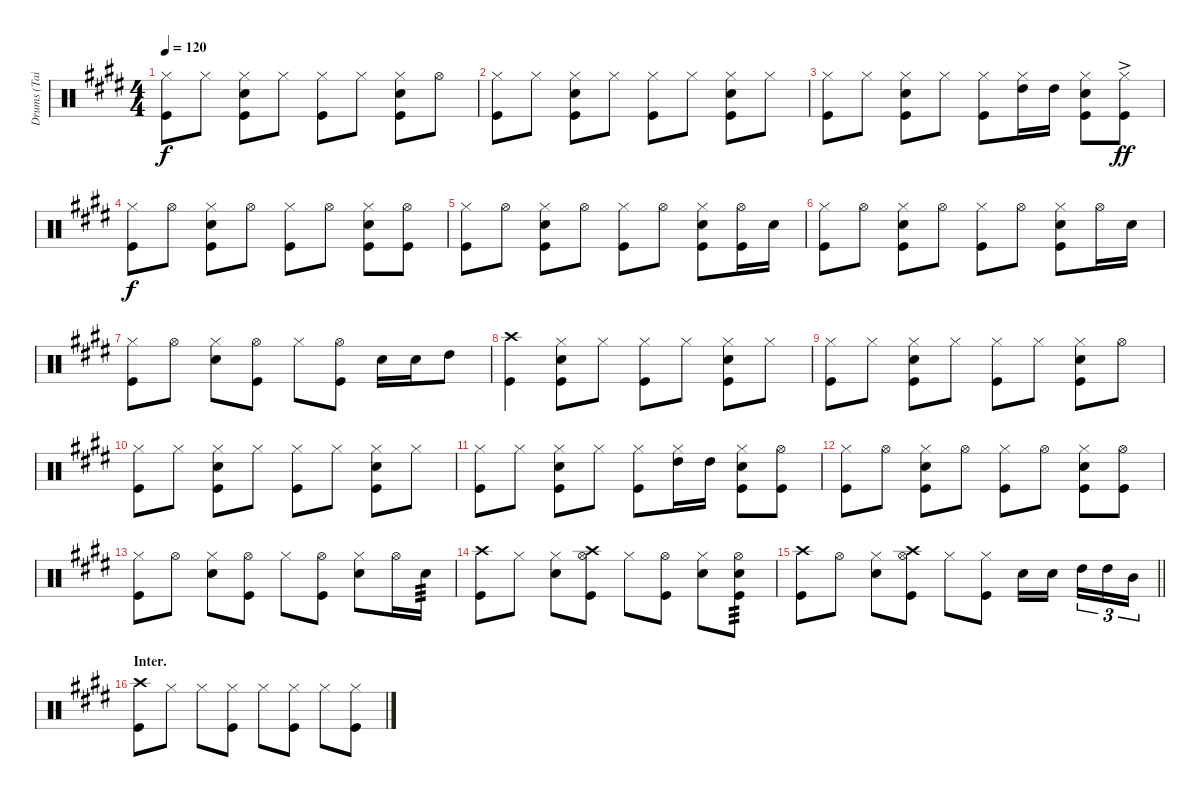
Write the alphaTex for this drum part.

\track ("Drums (Tainaka Ritsu)" "Drums (Tai") {instrument percussion}
\staff {score}
\articulation defaults
\ts (4 4)
\tempo 120
\clef neutral
\ks e
("Hi-Hat (closed)" "Kick (hit)").8{dy f} "Hi-Hat (closed)".8 ("Hi-Hat (closed)" "Snare (hit) 2" "Kick (hit)").8 "Hi-Hat (closed)".8 ("Hi-Hat (closed)" "Kick (hit)").8 "Hi-Hat (closed)".8 ("Hi-Hat (closed)" "Snare (hit) 2" "Kick (hit)").8 "Hi-Hat (open)".8 |
("Hi-Hat (closed)" "Kick (hit)").8 "Hi-Hat (closed)".8 ("Hi-Hat (closed)" "Snare (hit) 2" "Kick (hit)").8 "Hi-Hat (closed)".8 ("Hi-Hat (closed)" "Kick (hit)").8 "Hi-Hat (closed)".8 ("Hi-Hat (closed)" "Snare (hit) 2" "Kick (hit)").8 "Hi-Hat (closed)".8 |
("Hi-Hat (closed)" "Kick (hit)").8 "Hi-Hat (closed)".8 ("Hi-Hat (closed)" "Snare (hit) 2" "Kick (hit)").8 "Hi-Hat (closed)".8 ("Hi-Hat (closed)" "Kick (hit)").8 ("Hi-Hat (closed)" "High Tom (hit)").16 "High Tom (hit)".16 ("Hi-Hat (closed)" "Snare (hit) 2" "Kick (hit)").8 ("Hi-Hat (closed)"{ac} "Kick (hit)").8{dy ff} |
("Hi-Hat (closed)" "Kick (hit)").8{dy f} "Hi-Hat (open)".8 ("Hi-Hat (closed)" "Snare (hit) 2" "Kick (hit)").8 "Hi-Hat (open)".8 ("Hi-Hat (closed)" "Kick (hit)").8 "Hi-Hat (open)".8 ("Hi-Hat (closed)" "Snare (hit) 2" "Kick (hit)").8 ("Hi-Hat (open)" "Kick (hit)").8 |
("Hi-Hat (closed)" "Kick (hit)").8 "Hi-Hat (open)".8 ("Hi-Hat (closed)" "Snare (hit) 2" "Kick (hit)").8 "Hi-Hat (open)".8 ("Hi-Hat (closed)" "Kick (hit)").8 "Hi-Hat (open)".8 ("Hi-Hat (closed)" "Snare (hit) 2" "Kick (hit)").8 ("Hi-Hat (open)" "Kick (hit)").16 "Snare (hit) 2".16 |
("Hi-Hat (closed)" "Kick (hit)").8 "Hi-Hat (open)".8 ("Hi-Hat (closed)" "Snare (hit) 2" "Kick (hit)").8 "Hi-Hat (open)".8 ("Hi-Hat (closed)" "Kick (hit)").8 "Hi-Hat (open)".8 ("Hi-Hat (closed)" "Snare (hit) 2" "Kick (hit)").8 "Hi-Hat (open)".16 "Snare (hit) 2".16 |
("Hi-Hat (closed)" "Kick (hit)").8 "Hi-Hat (open)".8 ("Hi-Hat (closed)" "Snare (hit) 2").8 ("Hi-Hat (open)" "Kick (hit)").8 "Hi-Hat (closed)".8 ("Hi-Hat (open)" "Kick (hit)").8 "Snare (hit) 2".16 "Snare (hit) 2".16 "High Tom (hit)".8 |
("Crash high (hit)" "Kick (hit)").4 ("Hi-Hat (closed)" "Snare (hit) 2" "Kick (hit)").8 "Hi-Hat (closed)".8 ("Hi-Hat (closed)" "Kick (hit)").8 "Hi-Hat (closed)".8 ("Hi-Hat (closed)" "Snare (hit) 2" "Kick (hit)").8 "Hi-Hat (closed)".8 |
("Hi-Hat (closed)" "Kick (hit)").8 "Hi-Hat (closed)".8 ("Hi-Hat (closed)" "Snare (hit) 2" "Kick (hit)").8 "Hi-Hat (closed)".8 ("Hi-Hat (closed)" "Kick (hit)").8 "Hi-Hat (closed)".8 ("Hi-Hat (closed)" "Snare (hit) 2" "Kick (hit)").8 "Hi-Hat (open)".8 |
("Hi-Hat (closed)" "Kick (hit)").8 "Hi-Hat (closed)".8 ("Hi-Hat (closed)" "Snare (hit) 2" "Kick (hit)").8 "Hi-Hat (closed)".8 ("Hi-Hat (closed)" "Kick (hit)").8 "Hi-Hat (closed)".8 ("Hi-Hat (closed)" "Snare (hit) 2" "Kick (hit)").8 "Hi-Hat (closed)".8 |
("Hi-Hat (closed)" "Kick (hit)").8 "Hi-Hat (closed)".8 ("Hi-Hat (closed)" "Snare (hit) 2" "Kick (hit)").8 "Hi-Hat (closed)".8 ("Hi-Hat (closed)" "Kick (hit)").8 ("Hi-Hat (closed)" "High Tom (hit)").16 "High Tom (hit)".16 ("Hi-Hat (closed)" "Snare (hit) 2" "Kick (hit)").8 ("Hi-Hat (open)" "Kick (hit)").8 |
("Hi-Hat (closed)" "Kick (hit)").8 "Hi-Hat (open)".8 ("Hi-Hat (closed)" "Snare (hit) 2" "Kick (hit)").8 "Hi-Hat (open)".8 ("Hi-Hat (closed)" "Kick (hit)").8 "Hi-Hat (open)".8 ("Hi-Hat (closed)" "Snare (hit) 2" "Kick (hit)").8 ("Hi-Hat (open)" "Kick (hit)").8 |
("Hi-Hat (closed)" "Kick (hit)").8 "Hi-Hat (open)".8 ("Hi-Hat (closed)" "Snare (hit) 2").8 ("Hi-Hat (open)" "Kick (hit)").8 "Hi-Hat (closed)".8 ("Hi-Hat (open)" "Kick (hit)").8 ("Hi-Hat (closed)" "Snare (hit) 2").8 "Hi-Hat (open)".16 "Snare (hit) 2".16{tp 3} |
("Crash high (hit)" "Kick (hit)").8 "Hi-Hat (closed)".8 ("Hi-Hat (closed)" "Snare (hit) 2").8 ("Hi-Hat (open)" "Crash high (hit)" "Kick (hit)").8 "Hi-Hat (closed)".8 ("Hi-Hat (open)" "Kick (hit)").8 ("Hi-Hat (closed)" "Snare (hit) 2").8 ("Hi-Hat (open)" "Snare (hit) 2" "Kick (hit)").8{tp 3} |
\barLineRight lightlight
("Crash high (hit)" "Kick (hit)").8 "Hi-Hat (open)".8 ("Hi-Hat (closed)" "Snare (hit) 2").8 ("Hi-Hat (open)" "Crash high (hit)" "Kick (hit)").8 "Hi-Hat (closed)".8 ("Hi-Hat (closed)" "Kick (hit)").8 "Snare (hit) 2".16 "Snare (hit) 2".16{beam splitsecondary} "High Tom (hit)".16{tu (3 2)} "High Tom (hit)".16{tu (3 2)} "Mid Tom (hit)".16{tu (3 2)} |
\section ("" "Inter.")
("Crash high (hit)" "Kick (hit)").8 "Hi-Hat (closed)".8 "Hi-Hat (closed)".8 ("Hi-Hat (closed)" "Kick (hit)").8 "Hi-Hat (closed)".8 ("Hi-Hat (closed)" "Kick (hit)").8 "Hi-Hat (closed)".8 ("Hi-Hat (closed)" "Kick (hit)").8
